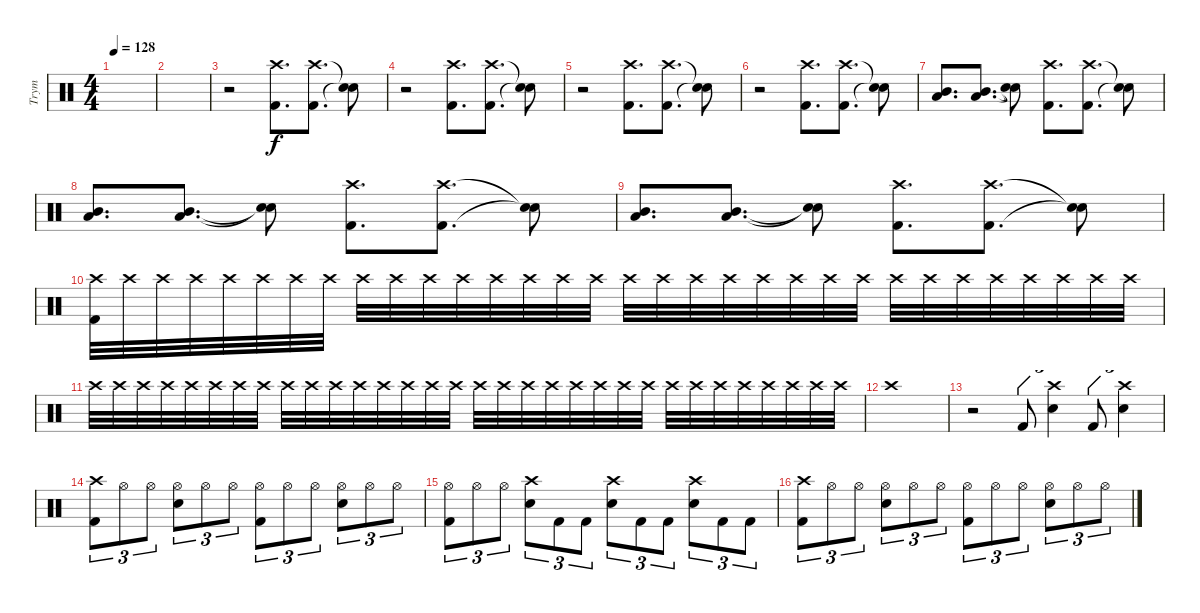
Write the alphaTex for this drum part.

\track ("Trym" "Trym") {instrument percussion}
\staff {score}
\articulation defaults
\ts (4 4)
\tempo 128
\clef neutral
\ks c
|
|
r.2 ("Crash high (hit)" "Kick (hit) 2").8{d} ("Crash high (hit)" "Kick (hit) 2").8{d} ("Snare (hit)"{t} "Snare (hit)"{t}).8 |
r.2 ("Crash high (hit)" "Kick (hit) 2").8{d} ("Crash high (hit)" "Kick (hit) 2").8{d} ("Snare (hit)"{t} "Snare (hit)"{t}).8 |
r.2 ("Crash high (hit)" "Kick (hit) 2").8{d} ("Crash high (hit)" "Kick (hit) 2").8{d} ("Snare (hit)"{t} "Snare (hit)"{t}).8 |
r.2 ("Crash high (hit)" "Kick (hit) 2").8{d} ("Crash high (hit)" "Kick (hit) 2").8{d} ("Snare (hit)"{t} "Snare (hit)"{t}).8 |
("Low Tom (hit)" "Mid Tom (hit)").8{d} ("Low Tom (hit)" "Mid Tom (hit)").8{d} ("Snare (hit)"{t} "Snare (hit)"{t}).8 ("Crash high (hit)" "Kick (hit) 2").8{d} ("Crash high (hit)" "Kick (hit) 2").8{d} ("Snare (hit)"{t} "Snare (hit)"{t}).8 |
("Low Tom (hit)" "Mid Tom (hit)").8{d} ("Low Tom (hit)" "Mid Tom (hit)").8{d} ("Snare (hit)"{t} "Snare (hit)"{t}).8 ("Crash high (hit)" "Kick (hit) 2").8{d} ("Crash high (hit)" "Kick (hit) 2").8{d} ("Snare (hit)"{t} "Snare (hit)"{t}).8 |
("Low Tom (hit)" "Mid Tom (hit)").8{d} ("Low Tom (hit)" "Mid Tom (hit)").8{d} ("Snare (hit)"{t} "Snare (hit)"{t}).8 ("Crash high (hit)" "Kick (hit) 2").8{d} ("Crash high (hit)" "Kick (hit) 2").8{d} ("Snare (hit)"{t} "Snare (hit)"{t}).8 |
("Crash high (hit)" "Kick (hit) 2").32 "Crash high (hit)".32 "Crash high (hit)".32 "Crash high (hit)".32 "Crash high (hit)".32 "Crash high (hit)".32 "Crash high (hit)".32 "Crash high (hit)".32 "Crash high (hit)".32 "Crash high (hit)".32 "Crash high (hit)".32 "Crash high (hit)".32 "Crash high (hit)".32 "Crash high (hit)".32 "Crash high (hit)".32 "Crash high (hit)".32 "Crash high (hit)".32 "Crash high (hit)".32 "Crash high (hit)".32 "Crash high (hit)".32 "Crash high (hit)".32 "Crash high (hit)".32 "Crash high (hit)".32 "Crash high (hit)".32 "Crash high (hit)".32 "Crash high (hit)".32 "Crash high (hit)".32 "Crash high (hit)".32 "Crash high (hit)".32 "Crash high (hit)".32 "Crash high (hit)".32 "Crash high (hit)".32 |
"Crash high (hit)".32 "Crash high (hit)".32 "Crash high (hit)".32 "Crash high (hit)".32 "Crash high (hit)".32 "Crash high (hit)".32 "Crash high (hit)".32 "Crash high (hit)".32 "Crash high (hit)".32 "Crash high (hit)".32 "Crash high (hit)".32 "Crash high (hit)".32 "Crash high (hit)".32 "Crash high (hit)".32 "Crash high (hit)".32 "Crash high (hit)".32 "Crash high (hit)".32 "Crash high (hit)".32 "Crash high (hit)".32 "Crash high (hit)".32 "Crash high (hit)".32 "Crash high (hit)".32 "Crash high (hit)".32 "Crash high (hit)".32 "Crash high (hit)".32 "Crash high (hit)".32 "Crash high (hit)".32 "Crash high (hit)".32 "Crash high (hit)".32 "Crash high (hit)".32 "Crash high (hit)".32 "Crash high (hit)".32 |
"Crash high (hit)".1 |
r.2 "Kick (hit) 2".8{tu (3 2)} ("Crash high (hit)" "Electric Snare (hit)").4{tu (3 2)} "Kick (hit) 2".8{tu (3 2)} ("Crash high (hit)" "Electric Snare (hit)").4{tu (3 2)} |
("Crash high (hit)" "Kick (hit) 2").8{tu (3 2)} "Hi-Hat (open)".8{tu (3 2)} "Hi-Hat (open)".8{tu (3 2)} ("Hi-Hat (open)" "Electric Snare (hit)").8{tu (3 2)} "Hi-Hat (open)".8{tu (3 2)} "Hi-Hat (open)".8{tu (3 2)} ("Hi-Hat (open)" "Kick (hit) 2").8{tu (3 2)} "Hi-Hat (open)".8{tu (3 2)} "Hi-Hat (open)".8{tu (3 2)} ("Hi-Hat (open)" "Electric Snare (hit)").8{tu (3 2)} "Hi-Hat (open)".8{tu (3 2)} "Hi-Hat (open)".8{tu (3 2)} |
("Hi-Hat (open)" "Kick (hit) 2").8{tu (3 2)} "Hi-Hat (open)".8{tu (3 2)} "Hi-Hat (open)".8{tu (3 2)} ("Crash high (hit)" "Electric Snare (hit)").8{tu (3 2)} "Kick (hit) 2".8{tu (3 2)} "Kick (hit) 2".8{tu (3 2)} ("Crash high (hit)" "Electric Snare (hit)").8{tu (3 2)} "Kick (hit) 2".8{tu (3 2)} "Kick (hit) 2".8{tu (3 2)} ("Crash high (hit)" "Electric Snare (hit)").8{tu (3 2)} "Kick (hit) 2".8{tu (3 2)} "Kick (hit) 2".8{tu (3 2)} |
("Crash high (hit)" "Kick (hit) 2").8{tu (3 2)} "Hi-Hat (open)".8{tu (3 2)} "Hi-Hat (open)".8{tu (3 2)} ("Hi-Hat (open)" "Electric Snare (hit)").8{tu (3 2)} "Hi-Hat (open)".8{tu (3 2)} "Hi-Hat (open)".8{tu (3 2)} ("Hi-Hat (open)" "Kick (hit) 2").8{tu (3 2)} "Hi-Hat (open)".8{tu (3 2)} "Hi-Hat (open)".8{tu (3 2)} ("Hi-Hat (open)" "Electric Snare (hit)").8{tu (3 2)} "Hi-Hat (open)".8{tu (3 2)} "Hi-Hat (open)".8{tu (3 2)}
